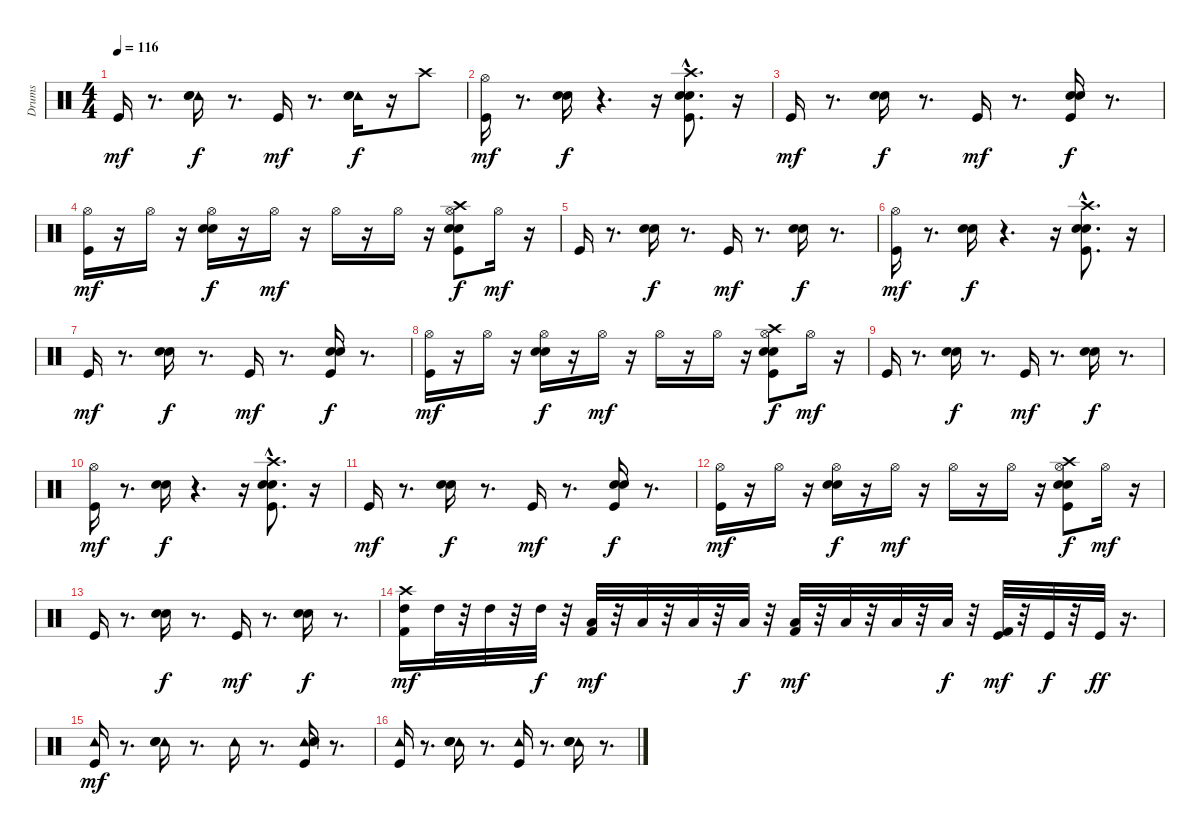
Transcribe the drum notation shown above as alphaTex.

\track ("Drums" "Drums") {instrument percussion}
\staff {score}
\articulation defaults
\ts (4 4)
\tempo 116
\clef neutral
\ks c "Kick (hit)".16{dy mf}
r.8{d} ("Tambourine (hit)" "Electric Snare (hit)" "Snare (hit) 2").16{dy f} r.8{d} "Kick (hit)".16{dy mf} r.8{d} ("Tambourine (hit)" "Electric Snare (hit)" "Snare (hit) 2").16{dy f} r.16 "Crash high (hit)".8 |
("Hi-Hat (open)" "Kick (hit)").16{dy mf} r.8{d} ("Electric Snare (hit)" "Snare (hit) 2").16{dy f} r.4{d} r.16 ("Crash high (hit)"{hac} "Electric Snare (hit)" "Snare (hit) 2" "Kick (hit)").8{d} r.16 |
"Kick (hit)".16{dy mf} r.8{d} ("Electric Snare (hit)" "Snare (hit) 2").16{dy f} r.8{d} "Kick (hit)".16{dy mf} r.8{d} ("Electric Snare (hit)" "Snare (hit) 2" "Kick (hit)").16{dy f} r.8{d} |
("Hi-Hat (open)" "Kick (hit)").16{dy mf} r.16 "Hi-Hat (open)".16 r.16 ("Hi-Hat (open)" "Electric Snare (hit)" "Snare (hit) 2").16{dy f} r.16 "Hi-Hat (open)".16{dy mf} r.16 "Hi-Hat (open)".16 r.16 "Hi-Hat (open)".16 r.16 ("Hi-Hat (open)" "Crash high (hit)" "Electric Snare (hit)" "Snare (hit) 2" "Kick (hit)").8{dy f} "Hi-Hat (open)".16{dy mf} r.16 |
"Kick (hit)".16 r.8{d} ("Electric Snare (hit)" "Snare (hit) 2").16{dy f} r.8{d} "Kick (hit)".16{dy mf} r.8{d} ("Electric Snare (hit)" "Snare (hit) 2").16{dy f} r.8{d} |
("Hi-Hat (open)" "Kick (hit)").16{dy mf} r.8{d} ("Electric Snare (hit)" "Snare (hit) 2").16{dy f} r.4{d} r.16 ("Crash high (hit)"{hac} "Electric Snare (hit)" "Snare (hit) 2" "Kick (hit)").8{d} r.16 |
"Kick (hit)".16{dy mf} r.8{d} ("Electric Snare (hit)" "Snare (hit) 2").16{dy f} r.8{d} "Kick (hit)".16{dy mf} r.8{d} ("Electric Snare (hit)" "Snare (hit) 2" "Kick (hit)").16{dy f} r.8{d} |
("Hi-Hat (open)" "Kick (hit)").16{dy mf} r.16 "Hi-Hat (open)".16 r.16 ("Hi-Hat (open)" "Electric Snare (hit)" "Snare (hit) 2").16{dy f} r.16 "Hi-Hat (open)".16{dy mf} r.16 "Hi-Hat (open)".16 r.16 "Hi-Hat (open)".16 r.16 ("Hi-Hat (open)" "Crash high (hit)" "Electric Snare (hit)" "Snare (hit) 2" "Kick (hit)").8{dy f} "Hi-Hat (open)".16{dy mf} r.16 |
"Kick (hit)".16 r.8{d} ("Electric Snare (hit)" "Snare (hit) 2").16{dy f} r.8{d} "Kick (hit)".16{dy mf} r.8{d} ("Electric Snare (hit)" "Snare (hit) 2").16{dy f} r.8{d} |
("Hi-Hat (open)" "Kick (hit)").16{dy mf} r.8{d} ("Electric Snare (hit)" "Snare (hit) 2").16{dy f} r.4{d} r.16 ("Crash high (hit)"{hac} "Electric Snare (hit)" "Snare (hit) 2" "Kick (hit)").8{d} r.16 |
"Kick (hit)".16{dy mf} r.8{d} ("Electric Snare (hit)" "Snare (hit) 2").16{dy f} r.8{d} "Kick (hit)".16{dy mf} r.8{d} ("Electric Snare (hit)" "Snare (hit) 2" "Kick (hit)").16{dy f} r.8{d} |
("Hi-Hat (open)" "Kick (hit)").16{dy mf} r.16 "Hi-Hat (open)".16 r.16 ("Hi-Hat (open)" "Electric Snare (hit)" "Snare (hit) 2").16{dy f} r.16 "Hi-Hat (open)".16{dy mf} r.16 "Hi-Hat (open)".16 r.16 "Hi-Hat (open)".16 r.16 ("Hi-Hat (open)" "Crash high (hit)" "Electric Snare (hit)" "Snare (hit) 2" "Kick (hit)").8{dy f} "Hi-Hat (open)".16{dy mf} r.16 |
"Kick (hit)".16 r.8{d} ("Electric Snare (hit)" "Snare (hit) 2").16{dy f} r.8{d} "Kick (hit)".16{dy mf} r.8{d} ("Electric Snare (hit)" "Snare (hit) 2").16{dy f} r.8{d} |
("High Tom (hit)" "Kick (hit) 2" "Crash high (hit)").16{dy mf} "High Tom (hit)".32 r.32 "High Tom (hit)".32 r.32 "High Tom (hit)".32{dy f} r.32 ("Low Tom (hit)" "Kick (hit) 2").32{dy mf} r.32 "Low Tom (hit)".32 r.32 "Low Tom (hit)".32 r.32 "Low Tom (hit)".32{dy f} r.32 ("Low Floor Tom (hit)" "Kick (hit) 2").32{dy mf} r.32 "Low Floor Tom (hit)".32 r.32 "Low Floor Tom (hit)".32 r.32 "Low Floor Tom (hit)".32{dy f} r.32 ("Kick (hit)" "Kick (hit) 2").32{dy mf} r.32 "Kick (hit)".32{dy f} r.32 "Kick (hit)".32{dy ff} r.16{d} |
("Tambourine (hit)" "Kick (hit)").16{dy mf} r.8{d} ("Tambourine (hit)" "Electric Snare (hit)" "Snare (hit) 2").16 r.8{d} "Tambourine (hit)".16 r.8{d} ("Tambourine (hit)" "Electric Snare (hit)" "Snare (hit) 2" "Kick (hit)").16 r.8{d} |
("Tambourine (hit)" "Kick (hit)").16 r.8{d} ("Tambourine (hit)" "Electric Snare (hit)" "Snare (hit) 2").16 r.8{d} ("Tambourine (hit)" "Kick (hit)").16 r.8{d} ("Tambourine (hit)" "Electric Snare (hit)" "Snare (hit) 2").16 r.8{d}
